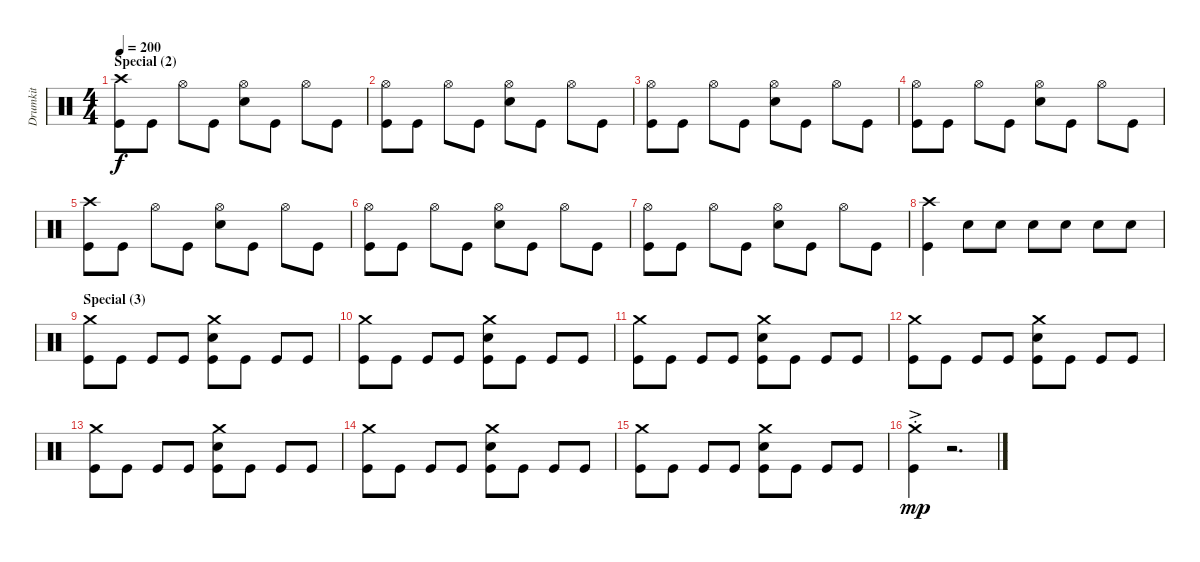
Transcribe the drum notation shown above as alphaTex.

\track ("Drumkit" "Drumkit") {instrument percussion}
\staff {score}
\articulation defaults
\ts (4 4)
\section ("" "Special (2)")
\tempo 200
\clef neutral
\ks c
("Kick (hit)" "Crash high (hit)").8{dy f} "Kick (hit)".8 "Hi-Hat (open)".8 "Kick (hit)".8 ("Snare (hit) 2" "Hi-Hat (open)").8 "Kick (hit)".8 "Hi-Hat (open)".8 "Kick (hit)".8 |
("Kick (hit)" "Hi-Hat (open)").8 "Kick (hit)".8 "Hi-Hat (open)".8 "Kick (hit)".8 ("Snare (hit) 2" "Hi-Hat (open)").8 "Kick (hit)".8 "Hi-Hat (open)".8 "Kick (hit)".8 |
("Kick (hit)" "Hi-Hat (open)").8 "Kick (hit)".8 "Hi-Hat (open)".8 "Kick (hit)".8 ("Snare (hit) 2" "Hi-Hat (open)").8 "Kick (hit)".8 "Hi-Hat (open)".8 "Kick (hit)".8 |
("Kick (hit)" "Hi-Hat (open)").8 "Kick (hit)".8 "Hi-Hat (open)".8 "Kick (hit)".8 ("Snare (hit) 2" "Hi-Hat (open)").8 "Kick (hit)".8 "Hi-Hat (open)".8 "Kick (hit)".8 |
("Kick (hit)" "Crash high (hit)").8 "Kick (hit)".8 "Hi-Hat (open)".8 "Kick (hit)".8 ("Snare (hit) 2" "Hi-Hat (open)").8 "Kick (hit)".8 "Hi-Hat (open)".8 "Kick (hit)".8 |
("Kick (hit)" "Hi-Hat (open)").8 "Kick (hit)".8 "Hi-Hat (open)".8 "Kick (hit)".8 ("Snare (hit) 2" "Hi-Hat (open)").8 "Kick (hit)".8 "Hi-Hat (open)".8 "Kick (hit)".8 |
("Kick (hit)" "Hi-Hat (open)").8 "Kick (hit)".8 "Hi-Hat (open)".8 "Kick (hit)".8 ("Snare (hit) 2" "Hi-Hat (open)").8 "Kick (hit)".8 "Hi-Hat (open)".8 "Kick (hit)".8 |
("Crash high (hit)" "Kick (hit)").4 "Snare (hit) 2".8 "Snare (hit) 2".8 "Snare (hit) 2".8 "Snare (hit) 2".8 "Snare (hit) 2".8 "Snare (hit) 2".8 |
\section ("" "Special (3)")
("Kick (hit)" "Crash medium (hit)").8 "Kick (hit)".8 "Kick (hit)".8 "Kick (hit)".8 ("Kick (hit)" "Snare (hit) 2" "Crash medium (hit)").8 "Kick (hit)".8 "Kick (hit)".8 "Kick (hit)".8 |
("Kick (hit)" "Crash medium (hit)").8 "Kick (hit)".8 "Kick (hit)".8 "Kick (hit)".8 ("Kick (hit)" "Snare (hit) 2" "Crash medium (hit)").8 "Kick (hit)".8 "Kick (hit)".8 "Kick (hit)".8 |
("Kick (hit)" "Crash medium (hit)").8 "Kick (hit)".8 "Kick (hit)".8 "Kick (hit)".8 ("Kick (hit)" "Snare (hit) 2" "Crash medium (hit)").8 "Kick (hit)".8 "Kick (hit)".8 "Kick (hit)".8 |
("Kick (hit)" "Crash medium (hit)").8 "Kick (hit)".8 "Kick (hit)".8 "Kick (hit)".8 ("Kick (hit)" "Snare (hit) 2" "Crash medium (hit)").8 "Kick (hit)".8 "Kick (hit)".8 "Kick (hit)".8 |
("Kick (hit)" "Crash medium (hit)").8 "Kick (hit)".8 "Kick (hit)".8 "Kick (hit)".8 ("Kick (hit)" "Snare (hit) 2" "Crash medium (hit)").8 "Kick (hit)".8 "Kick (hit)".8 "Kick (hit)".8 |
("Kick (hit)" "Crash medium (hit)").8 "Kick (hit)".8 "Kick (hit)".8 "Kick (hit)".8 ("Kick (hit)" "Snare (hit) 2" "Crash medium (hit)").8 "Kick (hit)".8 "Kick (hit)".8 "Kick (hit)".8 |
("Kick (hit)" "Crash medium (hit)").8 "Kick (hit)".8 "Kick (hit)".8 "Kick (hit)".8 ("Kick (hit)" "Snare (hit) 2" "Crash medium (hit)").8 "Kick (hit)".8 "Kick (hit)".8 "Kick (hit)".8 |
("Kick (hit)"{ac st} "Crash medium (hit)"{ac st}).4{dy mp} r.2{d}
